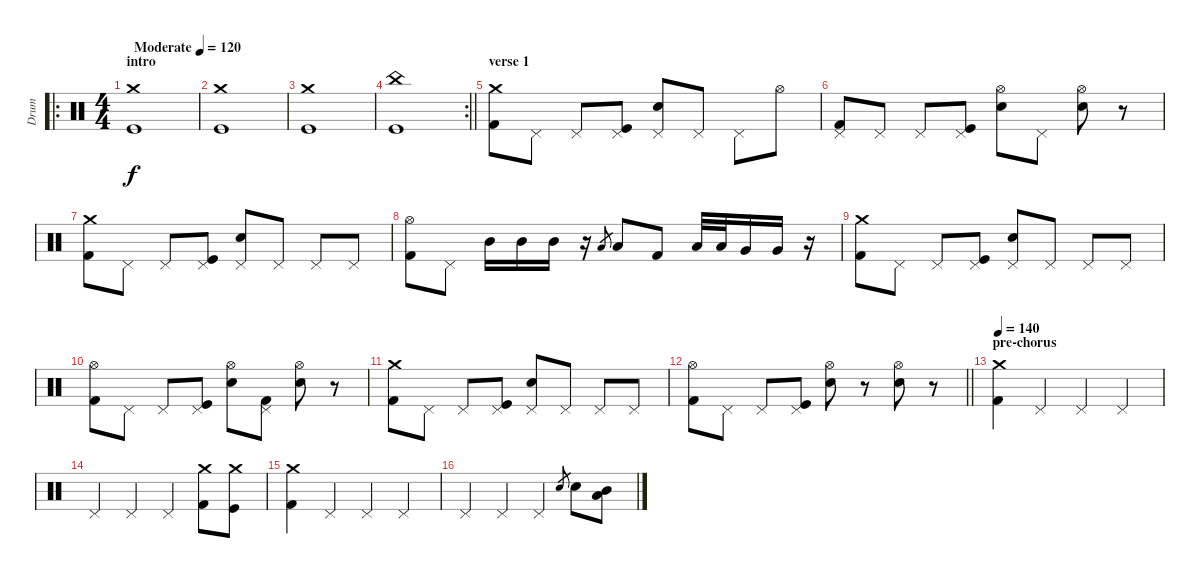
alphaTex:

\track ("Drum" "Drum") {instrument percussion}
\staff {score}
\articulation defaults
\ro
\ts (4 4)
\section ("" "intro")
\tempo (120 "Moderate")
\tempo 110
\tempo (120 "Moderate")
\clef neutral
\ks c
("Crash medium (hit)" "Kick (hit)").1{dy f} |
("Crash medium (hit)" "Kick (hit)").1 |
("Crash medium (hit)" "Kick (hit)").1 |
\rc 2
\barLineRight lightlight
("China (hit)" "Kick (hit)").1 |
\section ("" "verse 1")
("Crash medium (hit)" "Kick (hit) 2").8 "Pedal Hi-Hat (hit)".8 "Pedal Hi-Hat (hit)".8 ("Pedal Hi-Hat (hit)" "Kick (hit)").8 ("Pedal Hi-Hat (hit)" "Snare (hit) 2").8 "Pedal Hi-Hat (hit)".8 "Pedal Hi-Hat (hit)".8 "Hi-Hat (open)".8 |
("Pedal Hi-Hat (hit)" "Kick (hit) 2").8 "Pedal Hi-Hat (hit)".8 "Pedal Hi-Hat (hit)".8 ("Pedal Hi-Hat (hit)" "Kick (hit)").8 ("Hi-Hat (open)" "Snare (hit) 2").8 "Pedal Hi-Hat (hit)".8 ("Hi-Hat (open)" "Snare (hit) 2").8 r.8 |
("Crash medium (hit)" "Kick (hit) 2").8 "Pedal Hi-Hat (hit)".8 "Pedal Hi-Hat (hit)".8 ("Pedal Hi-Hat (hit)" "Kick (hit)").8 ("Pedal Hi-Hat (hit)" "Snare (hit) 2").8 "Pedal Hi-Hat (hit)".8 "Pedal Hi-Hat (hit)".8 "Pedal Hi-Hat (hit)".8 |
("Hi-Hat (open)" "Kick (hit) 2").8 "Pedal Hi-Hat (hit)".8 "Mid Tom (hit)".16 "Mid Tom (hit)".16 "Mid Tom (hit)".16 r.16 "Low Tom (hit)".8{gr} "Low Tom (hit)".8 "Kick (hit) 2".8 "Low Tom (hit)".32 "Low Tom (hit)".32 "Very Low Tom (hit)".16 "Very Low Tom (hit)".16 r.16 |
("Crash medium (hit)" "Kick (hit) 2").8 "Pedal Hi-Hat (hit)".8 "Pedal Hi-Hat (hit)".8 ("Pedal Hi-Hat (hit)" "Kick (hit)").8 ("Pedal Hi-Hat (hit)" "Snare (hit) 2").8 "Pedal Hi-Hat (hit)".8 "Pedal Hi-Hat (hit)".8 "Pedal Hi-Hat (hit)".8 |
("Hi-Hat (open)" "Kick (hit) 2").8 "Pedal Hi-Hat (hit)".8 "Pedal Hi-Hat (hit)".8 ("Pedal Hi-Hat (hit)" "Kick (hit)").8 ("Hi-Hat (open)" "Snare (hit) 2").8 ("Pedal Hi-Hat (hit)" "Kick (hit) 2").8 ("Hi-Hat (open)" "Snare (hit) 2").8 r.8 |
("Crash medium (hit)" "Kick (hit) 2").8 "Pedal Hi-Hat (hit)".8 "Pedal Hi-Hat (hit)".8 ("Pedal Hi-Hat (hit)" "Kick (hit)").8 ("Pedal Hi-Hat (hit)" "Snare (hit) 2").8 "Pedal Hi-Hat (hit)".8 "Pedal Hi-Hat (hit)".8 "Pedal Hi-Hat (hit)".8 |
\barLineRight lightlight
("Hi-Hat (open)" "Kick (hit) 2").8 "Pedal Hi-Hat (hit)".8 "Pedal Hi-Hat (hit)".8 ("Pedal Hi-Hat (hit)" "Kick (hit)").8 ("Hi-Hat (open)" "Snare (hit) 2").8 r.8 ("Hi-Hat (open)" "Snare (hit) 2").8 r.8 |
\section ("" "pre-chorus")
\tempo 140
("Crash medium (hit)" "Kick (hit) 2").4 "Pedal Hi-Hat (hit)".4 "Pedal Hi-Hat (hit)".4 "Pedal Hi-Hat (hit)".4 |
"Pedal Hi-Hat (hit)".4 "Pedal Hi-Hat (hit)".4 "Pedal Hi-Hat (hit)".4 ("Crash medium (hit)" "Kick (hit) 2").8 ("Crash medium (hit)" "Kick (hit)").8 |
("Crash medium (hit)" "Kick (hit) 2").4 "Pedal Hi-Hat (hit)".4 "Pedal Hi-Hat (hit)".4 "Pedal Hi-Hat (hit)".4 |
"Pedal Hi-Hat (hit)".4 "Pedal Hi-Hat (hit)".4 "Pedal Hi-Hat (hit)".4 "Snare (hit) 2".8{gr} "Snare (hit) 2".8 ("Mid Tom (hit)" "Low Tom (hit)").8
